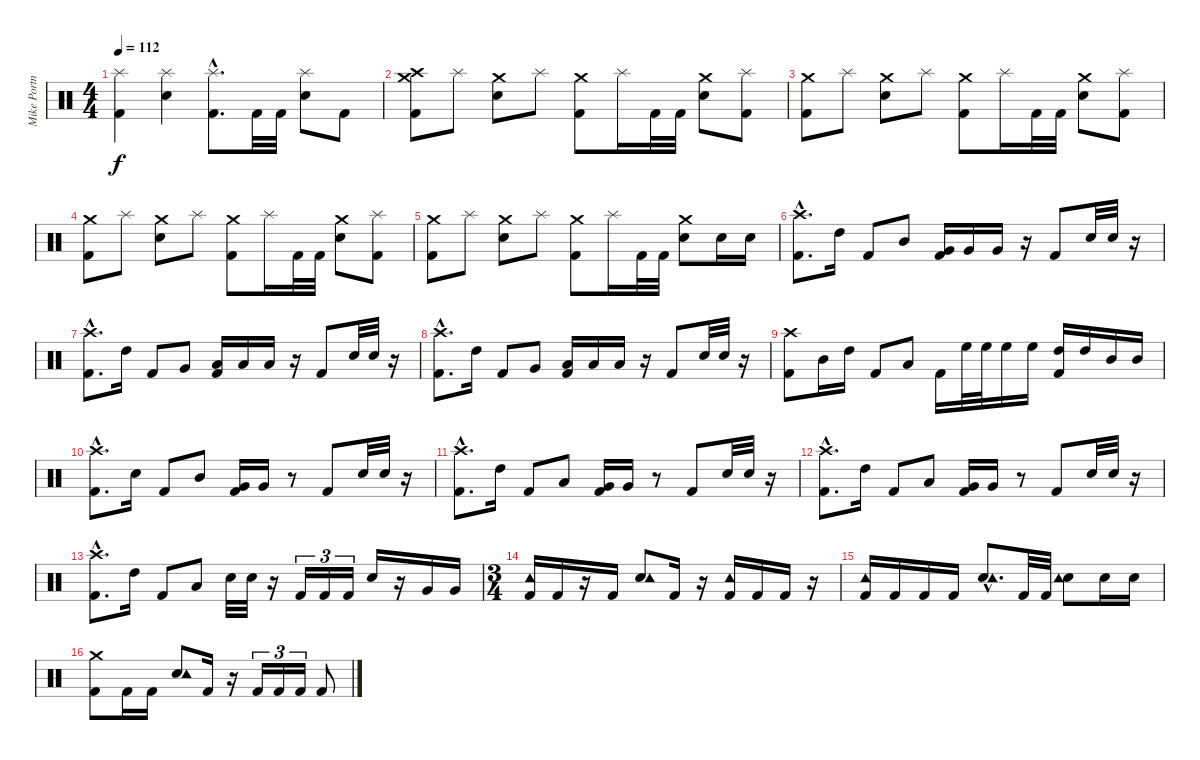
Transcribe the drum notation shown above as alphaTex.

\track ("Mike Portnoy" "Mike Portn") {instrument percussion}
\staff {score}
\articulation defaults
\ts (4 4)
\tempo 112
\clef neutral
\ks c
("Kick (hit) 2" "Splash (hit)").4{dy f} ("Electric Snare (hit)" "Splash (hit)").4 ("Kick (hit) 2"{hac} "Splash (hit)"{hac}).8{d} "Kick (hit) 2".32 "Kick (hit) 2".32 ("Electric Snare (hit)" "Splash (hit)").8 "Kick (hit) 2".8 |
("Kick (hit) 2" "Crash high (hit)" "Crash medium (hit)").8 "Splash (hit)".8 ("Electric Snare (hit)" "Crash medium (hit)").8 "Splash (hit)".8 ("Kick (hit) 2" "Crash medium (hit)").8 "Splash (hit)".16 "Kick (hit) 2".32 "Kick (hit) 2".32 ("Electric Snare (hit)" "Crash medium (hit)").8 ("Kick (hit) 2" "Splash (hit)").8 |
("Kick (hit) 2" "Crash medium (hit)").8 "Splash (hit)".8 ("Electric Snare (hit)" "Crash medium (hit)").8 "Splash (hit)".8 ("Kick (hit) 2" "Crash medium (hit)").8 "Splash (hit)".16 "Kick (hit) 2".32 "Kick (hit) 2".32 ("Electric Snare (hit)" "Crash medium (hit)").8 ("Kick (hit) 2" "Splash (hit)").8 |
("Kick (hit) 2" "Crash medium (hit)").8 "Splash (hit)".8 ("Electric Snare (hit)" "Crash medium (hit)").8 "Splash (hit)".8 ("Kick (hit) 2" "Crash medium (hit)").8 "Splash (hit)".16 "Kick (hit) 2".32 "Kick (hit) 2".32 ("Electric Snare (hit)" "Crash medium (hit)").8 ("Kick (hit) 2" "Splash (hit)").8 |
("Kick (hit) 2" "Crash medium (hit)").8 "Splash (hit)".8 ("Electric Snare (hit)" "Crash medium (hit)").8 "Splash (hit)".8 ("Kick (hit) 2" "Crash medium (hit)").8 "Splash (hit)".16 "Kick (hit) 2".32 "Kick (hit) 2".32 ("Electric Snare (hit)" "Crash medium (hit)").8 "Electric Snare (hit)".16 "Electric Snare (hit)".16 |
("Kick (hit) 2"{hac} "Crash high (hit)"{hac}).8{d} "High Tom (hit)".16 "Kick (hit) 2".8 "Mid Tom (hit)".8 ("Kick (hit) 2" "Very Low Tom (hit)").16 "Very Low Tom (hit)".16 "Very Low Tom (hit)".16 r.16 "Kick (hit) 2".8 "Electric Snare (hit)".32 "Electric Snare (hit)".32 r.16 |
("Kick (hit) 2"{hac} "Crash high (hit)"{hac}).8{d} "High Tom (hit)".16 "Kick (hit) 2".8 "Very Low Tom (hit)".8 ("Kick (hit) 2" "Low Floor Tom (hit)").16 "Low Floor Tom (hit)".16 "Low Floor Tom (hit)".16 r.16 "Kick (hit) 2".8 "Electric Snare (hit)".32 "Electric Snare (hit)".32 r.16 |
("Kick (hit) 2"{hac} "Crash high (hit)"{hac}).8{d} "High Tom (hit)".16 "Kick (hit) 2".8 "Very Low Tom (hit)".8 ("Kick (hit) 2" "Low Floor Tom (hit)").16 "Low Floor Tom (hit)".16 "Low Floor Tom (hit)".16 r.16 "Kick (hit) 2".8 "Electric Snare (hit)".32 "Electric Snare (hit)".32 r.16 |
("Kick (hit) 2" "Crash high (hit)").8 "Mid Tom (hit)".16 "High Tom (hit)".16 "Kick (hit) 2".8 "Low Tom (hit)".8 "Kick (hit) 2".16 "High Floor Tom (hit)".32 "High Floor Tom (hit)".32 "High Floor Tom (hit)".16 "High Floor Tom (hit)".16 ("Kick (hit) 2" "High Tom (hit)").16 "High Tom (hit)".16 "Mid Tom (hit)".16 "Mid Tom (hit)".16 |
("Kick (hit) 2"{hac} "Crash high (hit)"{hac}).8{d} "Electric Snare (hit)".16 "Kick (hit) 2".8 "Mid Tom (hit)".8 ("Kick (hit) 2" "Very Low Tom (hit)").16 "Very Low Tom (hit)".16 r.8 "Kick (hit) 2".8 "Electric Snare (hit)".32 "Electric Snare (hit)".32 r.16 |
("Kick (hit) 2"{hac} "Crash high (hit)"{hac}).8{d} "High Tom (hit)".16 "Kick (hit) 2".8 "Low Tom (hit)".8 ("Kick (hit) 2" "Very Low Tom (hit)").16 "Very Low Tom (hit)".16 r.8 "Kick (hit) 2".8 "Electric Snare (hit)".32 "Electric Snare (hit)".32 r.16 |
("Kick (hit) 2"{hac} "Crash high (hit)"{hac}).8{d} "High Tom (hit)".16 "Kick (hit) 2".8 "Low Tom (hit)".8 ("Kick (hit) 2" "Very Low Tom (hit)").16 "Very Low Tom (hit)".16 r.8 "Kick (hit) 2".8 "Electric Snare (hit)".32 "Electric Snare (hit)".32 r.16 |
("Kick (hit) 2"{hac} "Crash high (hit)"{hac}).8{d} "High Tom (hit)".16 "Kick (hit) 2".8 "Low Tom (hit)".8 "Electric Snare (hit)".32 "Electric Snare (hit)".32 r.16 "Kick (hit) 2".16{tu (3 2)} "Kick (hit) 2".16{tu (3 2)} "Kick (hit) 2".16{tu (3 2)} "Electric Snare (hit)".16 r.16 "Very Low Tom (hit)".16 "Very Low Tom (hit)".16 |
\ts (3 4)
("Kick (hit) 2" "Tambourine (hit)").16 "Kick (hit) 2".16 r.16 "Kick (hit) 2".16 ("Electric Snare (hit)" "Tambourine (hit)").8 "Kick (hit) 2".16 r.16 ("Kick (hit) 2" "Tambourine (hit)").16 "Kick (hit) 2".16 "Kick (hit) 2".16 r.16 |
("Kick (hit) 2" "Tambourine (hit)").16 "Kick (hit) 2".16 "Kick (hit) 2".16 "Kick (hit) 2".16 ("Electric Snare (hit)"{hac} "Tambourine (hit)"{hac}).8{d} "Kick (hit) 2".32 "Kick (hit) 2".32 ("Electric Snare (hit)" "Tambourine (hit)").8 "Electric Snare (hit)".16 "Electric Snare (hit)".16 |
("Kick (hit) 2" "Crash medium (hit)").8 "Kick (hit) 2".16 "Kick (hit) 2".16 ("Electric Snare (hit)" "Tambourine (hit)").8 "Kick (hit) 2".16 r.16 "Kick (hit) 2".16{tu (3 2)} "Kick (hit) 2".16{tu (3 2)} "Kick (hit) 2".16{tu (3 2)} "Kick (hit) 2".8
